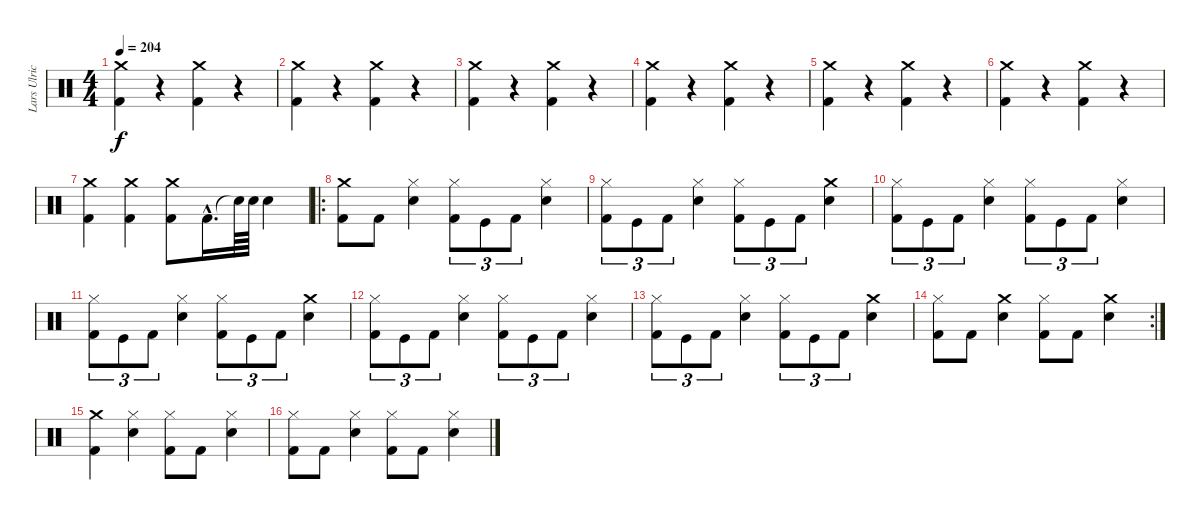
\track ("Lars Ulrich (Drums)" "Lars Ulric") {instrument percussion}
\staff {score}
\articulation defaults
\ts (4 4)
\tempo 204
\clef neutral
\ks c
("Crash medium (hit)" "Kick (hit) 2").4{dy f} r.4 ("Crash medium (hit)" "Kick (hit) 2").4 r.4 |
("Kick (hit) 2" "Crash medium (hit)").4 r.4 ("Kick (hit) 2" "Crash medium (hit)").4 r.4 |
("Kick (hit) 2" "Crash medium (hit)").4 r.4 ("Kick (hit) 2" "Crash medium (hit)").4 r.4 |
("Kick (hit) 2" "Crash medium (hit)").4 r.4 ("Kick (hit) 2" "Crash medium (hit)").4 r.4 |
("Kick (hit) 2" "Crash medium (hit)").4 r.4 ("Kick (hit) 2" "Crash medium (hit)").4 r.4 |
("Kick (hit) 2" "Crash medium (hit)").4 r.4 ("Kick (hit) 2" "Crash medium (hit)").4 r.4 |
("Kick (hit) 2" "Crash medium (hit)").4 ("Kick (hit) 2" "Crash medium (hit)").4 ("Kick (hit) 2" "Crash medium (hit)").8 "Kick (hit) 2"{hac}.16{d} "Snare (hit)"{t}.64 "Snare (hit) 2".64 "Snare (hit) 2".4 |
\ro
("Crash medium (hit)" "Kick (hit) 2").8 "Kick (hit) 2".8 ("Snare (hit) 2" "Hi-Hat (closed)").4 ("Hi-Hat (closed)" "Kick (hit) 2").8{tu (3 2)} "Kick (hit)".8{tu (3 2)} "Kick (hit) 2".8{tu (3 2)} ("Hi-Hat (closed)" "Snare (hit) 2").4 |
("Hi-Hat (closed)" "Kick (hit) 2").8{tu (3 2)} "Kick (hit)".8{tu (3 2)} "Kick (hit) 2".8{tu (3 2)} ("Snare (hit) 2" "Hi-Hat (closed)").4 ("Hi-Hat (closed)" "Kick (hit) 2").8{tu (3 2)} "Kick (hit)".8{tu (3 2)} "Kick (hit) 2".8{tu (3 2)} ("Crash medium (hit)" "Snare (hit) 2").4 |
("Hi-Hat (closed)" "Kick (hit) 2").8{tu (3 2)} "Kick (hit)".8{tu (3 2)} "Kick (hit) 2".8{tu (3 2)} ("Snare (hit) 2" "Hi-Hat (closed)").4 ("Hi-Hat (closed)" "Kick (hit) 2").8{tu (3 2)} "Kick (hit)".8{tu (3 2)} "Kick (hit) 2".8{tu (3 2)} ("Hi-Hat (closed)" "Snare (hit) 2").4 |
("Hi-Hat (closed)" "Kick (hit) 2").8{tu (3 2)} "Kick (hit)".8{tu (3 2)} "Kick (hit) 2".8{tu (3 2)} ("Snare (hit) 2" "Hi-Hat (closed)").4 ("Hi-Hat (closed)" "Kick (hit) 2").8{tu (3 2)} "Kick (hit)".8{tu (3 2)} "Kick (hit) 2".8{tu (3 2)} ("Crash medium (hit)" "Snare (hit) 2").4 |
("Hi-Hat (closed)" "Kick (hit) 2").8{tu (3 2)} "Kick (hit)".8{tu (3 2)} "Kick (hit) 2".8{tu (3 2)} ("Snare (hit) 2" "Hi-Hat (closed)").4 ("Hi-Hat (closed)" "Kick (hit) 2").8{tu (3 2)} "Kick (hit)".8{tu (3 2)} "Kick (hit) 2".8{tu (3 2)} ("Hi-Hat (closed)" "Snare (hit) 2").4 |
("Hi-Hat (closed)" "Kick (hit) 2").8{tu (3 2)} "Kick (hit)".8{tu (3 2)} "Kick (hit) 2".8{tu (3 2)} ("Snare (hit) 2" "Hi-Hat (closed)").4 ("Hi-Hat (closed)" "Kick (hit) 2").8{tu (3 2)} "Kick (hit)".8{tu (3 2)} "Kick (hit) 2".8{tu (3 2)} ("Crash medium (hit)" "Snare (hit) 2").4 |
\rc 2
("Kick (hit) 2" "Hi-Hat (closed)").8 "Kick (hit) 2".8 ("Crash medium (hit)" "Snare (hit) 2").4 ("Kick (hit) 2" "Hi-Hat (closed)").8 "Kick (hit) 2".8 ("Crash medium (hit)" "Snare (hit) 2").4 |
("Kick (hit) 2" "Crash medium (hit)").4 ("Hi-Hat (closed)" "Snare (hit) 2").4 ("Hi-Hat (closed)" "Kick (hit) 2").8 "Kick (hit) 2".8 ("Snare (hit) 2" "Hi-Hat (closed)").4 |
("Kick (hit) 2" "Hi-Hat (closed)").8 "Kick (hit) 2".8 ("Snare (hit) 2" "Hi-Hat (closed)").4 ("Kick (hit) 2" "Hi-Hat (closed)").8 "Kick (hit) 2".8 ("Snare (hit) 2" "Hi-Hat (closed)").4
